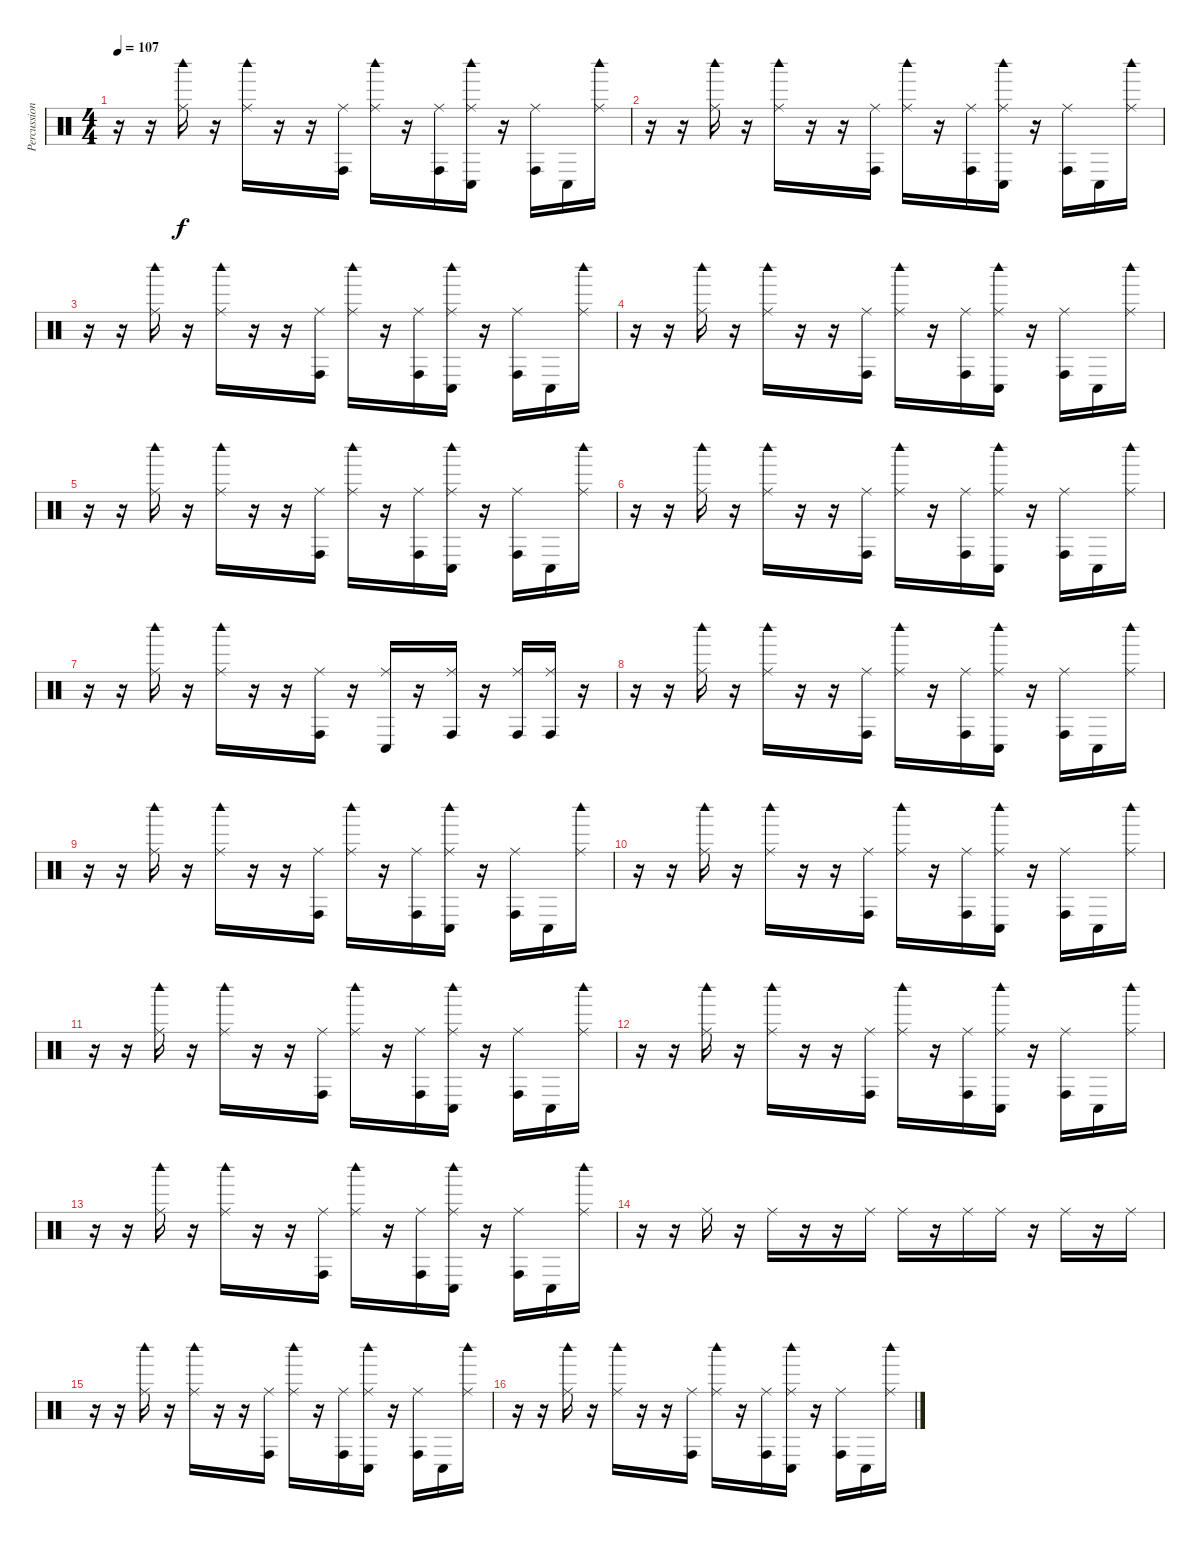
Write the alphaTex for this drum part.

\track ("Percussioni" "Percussion") {instrument percussion}
\staff {score}
\articulation defaults
\ts (4 4)
\tempo 107
\clef neutral
\ks c
r.16{dy f} r.16 ("Woodblock high (hit)" "Ride (middle)").16 r.16 ("Woodblock high (hit)" "Ride (middle)").16 r.16 r.16 ("Ride (middle)" "Conga high (hit)").16 ("Woodblock high (hit)" "Ride (middle)").16 r.16 ("Ride (middle)" "Conga high (hit)").16 ("Woodblock high (hit)" "Ride (middle)" "Conga low (hit)").16 r.16 ("Ride (middle)" "Conga high (hit)").16 "Conga low (hit)".16 ("Woodblock high (hit)" "Ride (middle)").16 |
r.16 r.16 ("Woodblock high (hit)" "Ride (middle)").16 r.16 ("Woodblock high (hit)" "Ride (middle)").16 r.16 r.16 ("Ride (middle)" "Conga high (hit)").16 ("Woodblock high (hit)" "Ride (middle)").16 r.16 ("Ride (middle)" "Conga high (hit)").16 ("Woodblock high (hit)" "Ride (middle)" "Conga low (hit)").16 r.16 ("Ride (middle)" "Conga high (hit)").16 "Conga low (hit)".16 ("Woodblock high (hit)" "Ride (middle)").16 |
r.16 r.16 ("Woodblock high (hit)" "Ride (middle)").16 r.16 ("Woodblock high (hit)" "Ride (middle)").16 r.16 r.16 ("Ride (middle)" "Conga high (hit)").16 ("Woodblock high (hit)" "Ride (middle)").16 r.16 ("Ride (middle)" "Conga high (hit)").16 ("Woodblock high (hit)" "Ride (middle)" "Conga low (hit)").16 r.16 ("Ride (middle)" "Conga high (hit)").16 "Conga low (hit)".16 ("Woodblock high (hit)" "Ride (middle)").16 |
r.16 r.16 ("Woodblock high (hit)" "Ride (middle)").16 r.16 ("Woodblock high (hit)" "Ride (middle)").16 r.16 r.16 ("Ride (middle)" "Conga high (hit)").16 ("Woodblock high (hit)" "Ride (middle)").16 r.16 ("Ride (middle)" "Conga high (hit)").16 ("Woodblock high (hit)" "Ride (middle)" "Conga low (hit)").16 r.16 ("Ride (middle)" "Conga high (hit)").16 "Conga low (hit)".16 ("Woodblock high (hit)" "Ride (middle)").16 |
r.16 r.16 ("Woodblock high (hit)" "Ride (middle)").16 r.16 ("Woodblock high (hit)" "Ride (middle)").16 r.16 r.16 ("Ride (middle)" "Conga high (hit)").16 ("Woodblock high (hit)" "Ride (middle)").16 r.16 ("Ride (middle)" "Conga high (hit)").16 ("Woodblock high (hit)" "Ride (middle)" "Conga low (hit)").16 r.16 ("Ride (middle)" "Conga high (hit)").16 "Conga low (hit)".16 ("Woodblock high (hit)" "Ride (middle)").16 |
r.16 r.16 ("Woodblock high (hit)" "Ride (middle)").16 r.16 ("Woodblock high (hit)" "Ride (middle)").16 r.16 r.16 ("Ride (middle)" "Conga high (hit)").16 ("Woodblock high (hit)" "Ride (middle)").16 r.16 ("Ride (middle)" "Conga high (hit)").16 ("Woodblock high (hit)" "Ride (middle)" "Conga low (hit)").16 r.16 ("Ride (middle)" "Conga high (hit)").16 "Conga low (hit)".16 ("Woodblock high (hit)" "Ride (middle)").16 |
r.16 r.16 ("Woodblock high (hit)" "Ride (middle)").16 r.16 ("Woodblock high (hit)" "Ride (middle)").16 r.16 r.16 ("Ride (middle)" "Conga high (hit)").16 r.16 ("Conga low (hit)" "Ride (middle)").16 r.16 ("Ride (middle)" "Conga high (hit)").16 r.16 ("Ride (middle)" "Conga high (hit)").16 ("Ride (middle)" "Conga high (hit)").16 r.16 |
r.16 r.16 ("Woodblock high (hit)" "Ride (middle)").16 r.16 ("Woodblock high (hit)" "Ride (middle)").16 r.16 r.16 ("Ride (middle)" "Conga high (hit)").16 ("Woodblock high (hit)" "Ride (middle)").16 r.16 ("Ride (middle)" "Conga high (hit)").16 ("Woodblock high (hit)" "Ride (middle)" "Conga low (hit)").16 r.16 ("Ride (middle)" "Conga high (hit)").16 "Conga low (hit)".16 ("Woodblock high (hit)" "Ride (middle)").16 |
r.16 r.16 ("Woodblock high (hit)" "Ride (middle)").16 r.16 ("Woodblock high (hit)" "Ride (middle)").16 r.16 r.16 ("Ride (middle)" "Conga high (hit)").16 ("Woodblock high (hit)" "Ride (middle)").16 r.16 ("Ride (middle)" "Conga high (hit)").16 ("Woodblock high (hit)" "Ride (middle)" "Conga low (hit)").16 r.16 ("Ride (middle)" "Conga high (hit)").16 "Conga low (hit)".16 ("Woodblock high (hit)" "Ride (middle)").16 |
r.16 r.16 ("Woodblock high (hit)" "Ride (middle)").16 r.16 ("Woodblock high (hit)" "Ride (middle)").16 r.16 r.16 ("Ride (middle)" "Conga high (hit)").16 ("Woodblock high (hit)" "Ride (middle)").16 r.16 ("Ride (middle)" "Conga high (hit)").16 ("Woodblock high (hit)" "Ride (middle)" "Conga low (hit)").16 r.16 ("Ride (middle)" "Conga high (hit)").16 "Conga low (hit)".16 ("Woodblock high (hit)" "Ride (middle)").16 |
r.16 r.16 ("Woodblock high (hit)" "Ride (middle)").16 r.16 ("Woodblock high (hit)" "Ride (middle)").16 r.16 r.16 ("Ride (middle)" "Conga high (hit)").16 ("Woodblock high (hit)" "Ride (middle)").16 r.16 ("Ride (middle)" "Conga high (hit)").16 ("Woodblock high (hit)" "Ride (middle)" "Conga low (hit)").16 r.16 ("Ride (middle)" "Conga high (hit)").16 "Conga low (hit)".16 ("Woodblock high (hit)" "Ride (middle)").16 |
r.16 r.16 ("Woodblock high (hit)" "Ride (middle)").16 r.16 ("Woodblock high (hit)" "Ride (middle)").16 r.16 r.16 ("Ride (middle)" "Conga high (hit)").16 ("Woodblock high (hit)" "Ride (middle)").16 r.16 ("Ride (middle)" "Conga high (hit)").16 ("Woodblock high (hit)" "Ride (middle)" "Conga low (hit)").16 r.16 ("Ride (middle)" "Conga high (hit)").16 "Conga low (hit)".16 ("Woodblock high (hit)" "Ride (middle)").16 |
r.16 r.16 ("Woodblock high (hit)" "Ride (middle)").16 r.16 ("Woodblock high (hit)" "Ride (middle)").16 r.16 r.16 ("Ride (middle)" "Conga high (hit)").16 ("Woodblock high (hit)" "Ride (middle)").16 r.16 ("Ride (middle)" "Conga high (hit)").16 ("Woodblock high (hit)" "Ride (middle)" "Conga low (hit)").16 r.16 ("Ride (middle)" "Conga high (hit)").16 "Conga low (hit)".16 ("Woodblock high (hit)" "Ride (middle)").16 |
r.16 r.16 "Ride (middle)".16 r.16 "Ride (middle)".16 r.16 r.16 "Ride (middle)".16 "Ride (middle)".16 r.16 "Ride (middle)".16 "Ride (middle)".16 r.16 "Ride (middle)".16 r.16 "Ride (middle)".16 |
r.16 r.16 ("Woodblock high (hit)" "Ride (middle)").16 r.16 ("Woodblock high (hit)" "Ride (middle)").16 r.16 r.16 ("Ride (middle)" "Conga high (hit)").16 ("Woodblock high (hit)" "Ride (middle)").16 r.16 ("Ride (middle)" "Conga high (hit)").16 ("Woodblock high (hit)" "Ride (middle)" "Conga low (hit)").16 r.16 ("Ride (middle)" "Conga high (hit)").16 "Conga low (hit)".16 ("Woodblock high (hit)" "Ride (middle)").16 |
r.16 r.16 ("Woodblock high (hit)" "Ride (middle)").16 r.16 ("Woodblock high (hit)" "Ride (middle)").16 r.16 r.16 ("Ride (middle)" "Conga high (hit)").16 ("Woodblock high (hit)" "Ride (middle)").16 r.16 ("Ride (middle)" "Conga high (hit)").16 ("Woodblock high (hit)" "Ride (middle)" "Conga low (hit)").16 r.16 ("Ride (middle)" "Conga high (hit)").16 "Conga low (hit)".16 ("Woodblock high (hit)" "Ride (middle)").16
